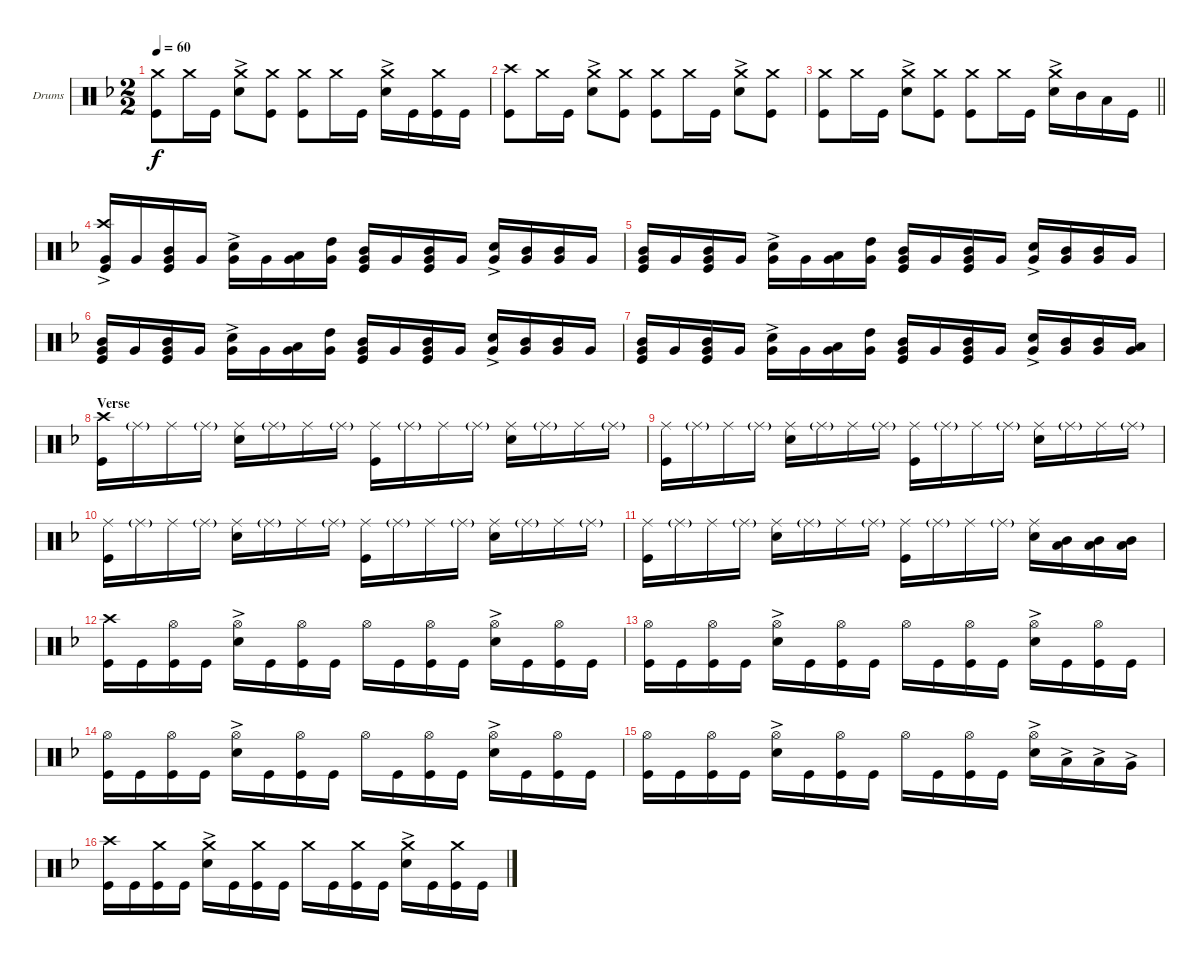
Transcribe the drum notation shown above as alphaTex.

\bracketExtendMode groupsimilarinstruments
\firstSystemTrackNameOrientation horizontal
\otherSystemsTrackNameOrientation horizontal
\track ("Drumkit" "Drums") {instrument percussion}
\staff {score}
\articulation defaults
\ts (2 2)
\tempo 60
\clef neutral
\ks dminor
("Kick (hit)" "Crash medium (hit)").8{dy f} "Crash medium (hit)".16 "Kick (hit)".16 ("Snare (hit) 2"{ac} "Crash medium (hit)").8 ("Crash medium (hit)" "Kick (hit)").8 ("Kick (hit)" "Crash medium (hit)").8 "Crash medium (hit)".16 "Kick (hit)".16 ("Snare (hit) 2"{ac} "Crash medium (hit)").16 "Kick (hit)".16 ("Kick (hit)" "Crash medium (hit)").16 "Kick (hit)".16 |
("Kick (hit)" "Crash high (hit)").8 "Crash medium (hit)".16 "Kick (hit)".16 ("Snare (hit) 2"{ac} "Crash medium (hit)").8 ("Crash medium (hit)" "Kick (hit)").8 ("Kick (hit)" "Crash medium (hit)").8 "Crash medium (hit)".16 "Kick (hit)".16 ("Snare (hit) 2"{ac} "Crash medium (hit)").8 ("Crash medium (hit)" "Kick (hit)").8 |
\barLineRight lightlight
("Kick (hit)" "Crash medium (hit)").8 "Crash medium (hit)".16 "Kick (hit)".16 ("Snare (hit) 2"{ac} "Crash medium (hit)").8 ("Crash medium (hit)" "Kick (hit)").8 ("Kick (hit)" "Crash medium (hit)").8 "Crash medium (hit)".16 "Kick (hit)".16 ("Snare (hit) 2"{ac} "Crash medium (hit)").16 "Mid Tom (hit)".16 "Low Tom (hit)".16 "Kick (hit)".16 |
("Very Low Tom (hit)" "Kick (hit)" "Crash high (hit)"{ac}).16 "Very Low Tom (hit)".16 ("Very Low Tom (hit)" "Mid Tom (hit)" "Kick (hit)").16 "Very Low Tom (hit)".16 ("Very Low Tom (hit)" "Snare (hit) 2"{ac}).16 "Very Low Tom (hit)".16 ("Very Low Tom (hit)" "Low Tom (hit)").16 ("Very Low Tom (hit)" "High Tom (hit)").16 ("Very Low Tom (hit)" "Kick (hit)" "Mid Tom (hit)").16 "Very Low Tom (hit)".16 ("Very Low Tom (hit)" "Kick (hit)" "Mid Tom (hit)").16 "Very Low Tom (hit)".16 ("Very Low Tom (hit)" "Snare (hit) 2"{ac}).16 ("Very Low Tom (hit)" "Mid Tom (hit)").16 ("Very Low Tom (hit)" "Mid Tom (hit)").16 "Very Low Tom (hit)".16 |
("Very Low Tom (hit)" "Mid Tom (hit)" "Kick (hit)").16 "Very Low Tom (hit)".16 ("Very Low Tom (hit)" "Mid Tom (hit)" "Kick (hit)").16 "Very Low Tom (hit)".16 ("Very Low Tom (hit)" "Snare (hit) 2"{ac}).16 "Very Low Tom (hit)".16 ("Very Low Tom (hit)" "Low Tom (hit)").16 ("Very Low Tom (hit)" "High Tom (hit)").16 ("Very Low Tom (hit)" "Kick (hit)" "Mid Tom (hit)").16 "Very Low Tom (hit)".16 ("Very Low Tom (hit)" "Kick (hit)" "Mid Tom (hit)").16 "Very Low Tom (hit)".16 ("Very Low Tom (hit)" "Snare (hit) 2"{ac}).16 ("Very Low Tom (hit)" "Mid Tom (hit)").16 ("Very Low Tom (hit)" "Mid Tom (hit)").16 "Very Low Tom (hit)".16 |
("Very Low Tom (hit)" "Mid Tom (hit)" "Kick (hit)").16 "Very Low Tom (hit)".16 ("Very Low Tom (hit)" "Mid Tom (hit)" "Kick (hit)").16 "Very Low Tom (hit)".16 ("Very Low Tom (hit)" "Snare (hit) 2"{ac}).16 "Very Low Tom (hit)".16 ("Very Low Tom (hit)" "Low Tom (hit)").16 ("Very Low Tom (hit)" "High Tom (hit)").16 ("Very Low Tom (hit)" "Kick (hit)" "Mid Tom (hit)").16 "Very Low Tom (hit)".16 ("Very Low Tom (hit)" "Kick (hit)" "Mid Tom (hit)").16 "Very Low Tom (hit)".16 ("Very Low Tom (hit)" "Snare (hit) 2"{ac}).16 ("Very Low Tom (hit)" "Mid Tom (hit)").16 ("Very Low Tom (hit)" "Mid Tom (hit)").16 "Very Low Tom (hit)".16 |
("Very Low Tom (hit)" "Mid Tom (hit)" "Kick (hit)").16 "Very Low Tom (hit)".16 ("Very Low Tom (hit)" "Mid Tom (hit)" "Kick (hit)").16 "Very Low Tom (hit)".16 ("Very Low Tom (hit)" "Snare (hit) 2"{ac}).16 "Very Low Tom (hit)".16 ("Very Low Tom (hit)" "Low Tom (hit)").16 ("Very Low Tom (hit)" "High Tom (hit)").16 ("Very Low Tom (hit)" "Kick (hit)" "Mid Tom (hit)").16 "Very Low Tom (hit)".16 ("Very Low Tom (hit)" "Kick (hit)" "Mid Tom (hit)").16 "Very Low Tom (hit)".16 ("Very Low Tom (hit)" "Snare (hit) 2"{ac}).16 ("Very Low Tom (hit)" "Mid Tom (hit)").16 ("Very Low Tom (hit)" "Mid Tom (hit)").16 ("Very Low Tom (hit)" "Low Tom (hit)").16 |
\section ("" "Verse ")
("Kick (hit)" "Crash high (hit)").16 "Ride (middle)"{g}.16 "Ride (middle)".16 "Ride (middle)"{g}.16 ("Ride (middle)" "Snare (hit) 2").16 "Ride (middle)"{g}.16 "Ride (middle)".16 "Ride (middle)"{g}.16 ("Ride (middle)" "Kick (hit)").16 "Ride (middle)"{g}.16 "Ride (middle)".16 "Ride (middle)"{g}.16 ("Ride (middle)" "Snare (hit) 2").16 "Ride (middle)"{g}.16 "Ride (middle)".16 "Ride (middle)"{g}.16 |
("Kick (hit)" "Ride (middle)").16 "Ride (middle)"{g}.16 "Ride (middle)".16 "Ride (middle)"{g}.16 ("Ride (middle)" "Snare (hit) 2").16 "Ride (middle)"{g}.16 "Ride (middle)".16 "Ride (middle)"{g}.16 ("Ride (middle)" "Kick (hit)").16 "Ride (middle)"{g}.16 "Ride (middle)".16 "Ride (middle)"{g}.16 ("Ride (middle)" "Snare (hit) 2").16 "Ride (middle)"{g}.16 "Ride (middle)".16 "Ride (middle)"{g}.16 |
("Kick (hit)" "Ride (middle)").16 "Ride (middle)"{g}.16 "Ride (middle)".16 "Ride (middle)"{g}.16 ("Ride (middle)" "Snare (hit) 2").16 "Ride (middle)"{g}.16 "Ride (middle)".16 "Ride (middle)"{g}.16 ("Ride (middle)" "Kick (hit)").16 "Ride (middle)"{g}.16 "Ride (middle)".16 "Ride (middle)"{g}.16 ("Ride (middle)" "Snare (hit) 2").16 "Ride (middle)"{g}.16 "Ride (middle)".16 "Ride (middle)"{g}.16 |
("Kick (hit)" "Ride (middle)").16 "Ride (middle)"{g}.16 "Ride (middle)".16 "Ride (middle)"{g}.16 ("Ride (middle)" "Snare (hit) 2").16 "Ride (middle)"{g}.16 "Ride (middle)".16 "Ride (middle)"{g}.16 ("Ride (middle)" "Kick (hit)").16 "Ride (middle)"{g}.16 "Ride (middle)".16 "Ride (middle)"{g}.16 ("Ride (middle)" "Snare (hit) 2").16 ("Low Tom (hit)" "Mid Tom (hit)").16 ("Mid Tom (hit)" "Low Tom (hit)").16 ("Mid Tom (hit)" "Low Tom (hit)").16 |
("Kick (hit)" "Crash high (hit)").16 "Kick (hit)".16 ("Kick (hit)" "Hi-Hat (open)").16 "Kick (hit)".16 ("Snare (hit) 2"{ac} "Hi-Hat (open)").16 "Kick (hit)".16 ("Kick (hit)" "Hi-Hat (open)").16 "Kick (hit)".16 "Hi-Hat (open)".16 "Kick (hit)".16 ("Kick (hit)" "Hi-Hat (open)").16 "Kick (hit)".16 ("Snare (hit) 2"{ac} "Hi-Hat (open)").16 "Kick (hit)".16 ("Kick (hit)" "Hi-Hat (open)").16 "Kick (hit)".16 |
("Kick (hit)" "Hi-Hat (open)").16 "Kick (hit)".16 ("Kick (hit)" "Hi-Hat (open)").16 "Kick (hit)".16 ("Snare (hit) 2"{ac} "Hi-Hat (open)").16 "Kick (hit)".16 ("Kick (hit)" "Hi-Hat (open)").16 "Kick (hit)".16 "Hi-Hat (open)".16 "Kick (hit)".16 ("Kick (hit)" "Hi-Hat (open)").16 "Kick (hit)".16 ("Snare (hit) 2"{ac} "Hi-Hat (open)").16 "Kick (hit)".16 ("Kick (hit)" "Hi-Hat (open)").16 "Kick (hit)".16 |
("Kick (hit)" "Hi-Hat (open)").16 "Kick (hit)".16 ("Kick (hit)" "Hi-Hat (open)").16 "Kick (hit)".16 ("Snare (hit) 2"{ac} "Hi-Hat (open)").16 "Kick (hit)".16 ("Kick (hit)" "Hi-Hat (open)").16 "Kick (hit)".16 "Hi-Hat (open)".16 "Kick (hit)".16 ("Kick (hit)" "Hi-Hat (open)").16 "Kick (hit)".16 ("Snare (hit) 2"{ac} "Hi-Hat (open)").16 "Kick (hit)".16 ("Kick (hit)" "Hi-Hat (open)").16 "Kick (hit)".16 |
("Kick (hit)" "Hi-Hat (open)").16 "Kick (hit)".16 ("Kick (hit)" "Hi-Hat (open)").16 "Kick (hit)".16 ("Snare (hit) 2"{ac} "Hi-Hat (open)").16 "Kick (hit)".16 ("Kick (hit)" "Hi-Hat (open)").16 "Kick (hit)".16 "Hi-Hat (open)".16 "Kick (hit)".16 ("Kick (hit)" "Hi-Hat (open)").16 "Kick (hit)".16 ("Snare (hit) 2"{ac} "Hi-Hat (open)").16 "Low Tom (hit)"{ac}.16 "Low Tom (hit)"{ac}.16 "Very Low Tom (hit)"{ac}.16 |
("Kick (hit)" "Crash high (hit)").16 "Kick (hit)".16 ("Kick (hit)" "Crash medium (hit)").16 "Kick (hit)".16 ("Snare (hit) 2"{ac} "Crash medium (hit)").16 "Kick (hit)".16 ("Kick (hit)" "Crash medium (hit)").16 "Kick (hit)".16 "Crash medium (hit)".16 "Kick (hit)".16 ("Kick (hit)" "Crash medium (hit)").16 "Kick (hit)".16 ("Snare (hit) 2"{ac} "Crash medium (hit)").16 "Kick (hit)".16 ("Kick (hit)" "Crash medium (hit)").16 "Kick (hit)".16
